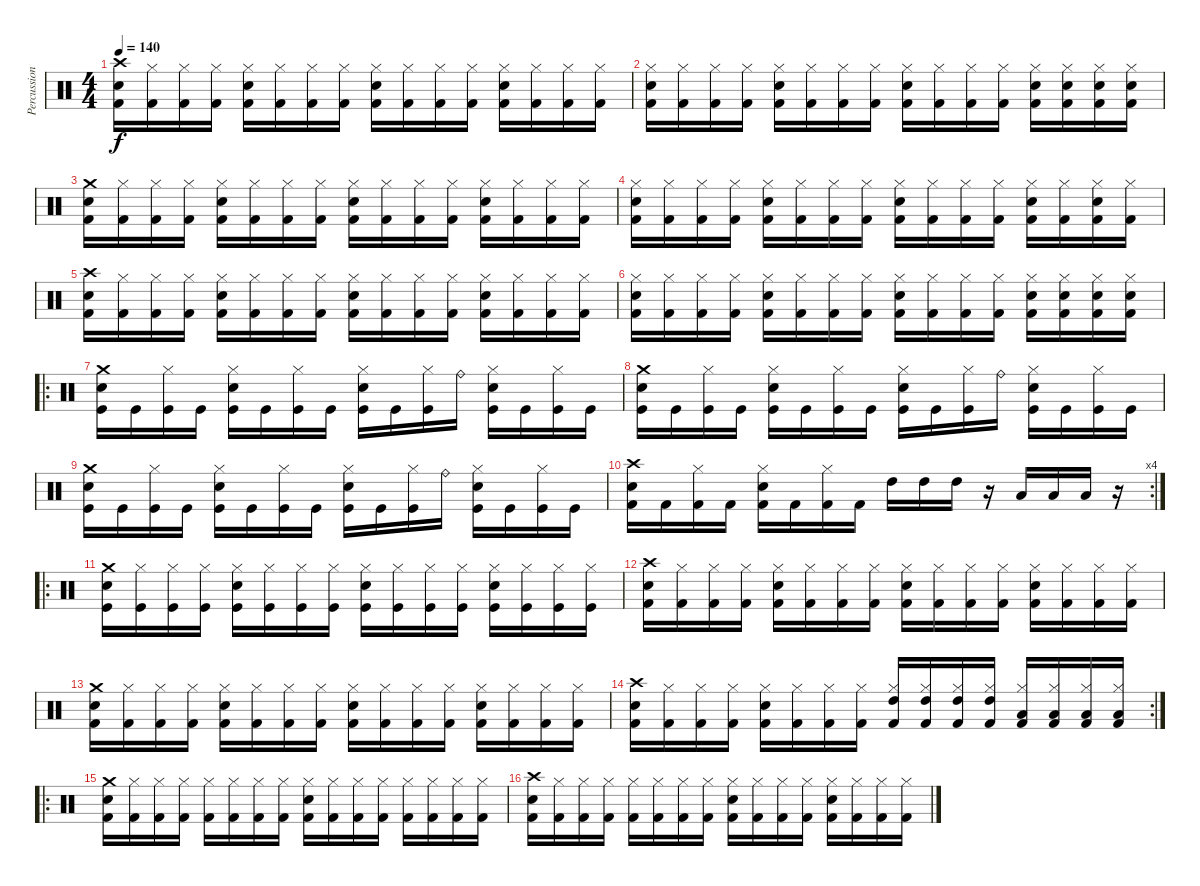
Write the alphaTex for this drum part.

\track ("Percussion" "Percussion") {instrument percussion}
\staff {score}
\articulation defaults
\ts (4 4)
\tempo 140
\clef neutral
\ks c
("Crash high (hit)" "Snare (hit) 2" "Kick (hit) 2").16{dy f} ("Hi-Hat (closed)" "Kick (hit) 2").16 ("Hi-Hat (closed)" "Kick (hit) 2").16 ("Hi-Hat (closed)" "Kick (hit) 2").16 ("Hi-Hat (closed)" "Snare (hit) 2" "Kick (hit) 2").16 ("Hi-Hat (closed)" "Kick (hit) 2").16 ("Hi-Hat (closed)" "Kick (hit) 2").16 ("Hi-Hat (closed)" "Kick (hit) 2").16 ("Hi-Hat (closed)" "Snare (hit) 2" "Kick (hit) 2").16 ("Hi-Hat (closed)" "Kick (hit) 2").16 ("Hi-Hat (closed)" "Kick (hit) 2").16 ("Hi-Hat (closed)" "Kick (hit) 2").16 ("Hi-Hat (closed)" "Snare (hit) 2" "Kick (hit) 2").16 ("Hi-Hat (closed)" "Kick (hit) 2").16 ("Hi-Hat (closed)" "Kick (hit) 2").16 ("Hi-Hat (closed)" "Kick (hit) 2").16 |
("Hi-Hat (closed)" "Snare (hit) 2" "Kick (hit) 2").16 ("Hi-Hat (closed)" "Kick (hit) 2").16 ("Hi-Hat (closed)" "Kick (hit) 2").16 ("Hi-Hat (closed)" "Kick (hit) 2").16 ("Hi-Hat (closed)" "Snare (hit) 2" "Kick (hit) 2").16 ("Hi-Hat (closed)" "Kick (hit) 2").16 ("Hi-Hat (closed)" "Kick (hit) 2").16 ("Hi-Hat (closed)" "Kick (hit) 2").16 ("Hi-Hat (closed)" "Snare (hit) 2" "Kick (hit) 2").16 ("Hi-Hat (closed)" "Kick (hit) 2").16 ("Hi-Hat (closed)" "Kick (hit) 2").16 ("Hi-Hat (closed)" "Kick (hit) 2").16 ("Hi-Hat (closed)" "Snare (hit) 2" "Kick (hit) 2").16 ("Hi-Hat (closed)" "Snare (hit) 2" "Kick (hit) 2").16 ("Hi-Hat (closed)" "Snare (hit) 2" "Kick (hit) 2").16 ("Hi-Hat (closed)" "Snare (hit) 2" "Kick (hit) 2").16 |
("Crash medium (hit)" "Snare (hit) 2" "Kick (hit) 2").16 ("Hi-Hat (closed)" "Kick (hit) 2").16 ("Hi-Hat (closed)" "Kick (hit) 2").16 ("Hi-Hat (closed)" "Kick (hit) 2").16 ("Hi-Hat (closed)" "Snare (hit) 2" "Kick (hit) 2").16 ("Hi-Hat (closed)" "Kick (hit) 2").16 ("Hi-Hat (closed)" "Kick (hit) 2").16 ("Hi-Hat (closed)" "Kick (hit) 2").16 ("Hi-Hat (closed)" "Snare (hit) 2" "Kick (hit) 2").16 ("Hi-Hat (closed)" "Kick (hit) 2").16 ("Hi-Hat (closed)" "Kick (hit) 2").16 ("Hi-Hat (closed)" "Kick (hit) 2").16 ("Hi-Hat (closed)" "Snare (hit) 2" "Kick (hit) 2").16 ("Hi-Hat (closed)" "Kick (hit) 2").16 ("Hi-Hat (closed)" "Kick (hit) 2").16 ("Hi-Hat (closed)" "Kick (hit) 2").16 |
("Hi-Hat (closed)" "Snare (hit) 2" "Kick (hit) 2").16 ("Hi-Hat (closed)" "Kick (hit) 2").16 ("Hi-Hat (closed)" "Kick (hit) 2").16 ("Hi-Hat (closed)" "Kick (hit) 2").16 ("Hi-Hat (closed)" "Snare (hit) 2" "Kick (hit) 2").16 ("Hi-Hat (closed)" "Kick (hit) 2").16 ("Hi-Hat (closed)" "Kick (hit) 2").16 ("Hi-Hat (closed)" "Kick (hit) 2").16 ("Hi-Hat (closed)" "Snare (hit) 2" "Kick (hit) 2").16 ("Hi-Hat (closed)" "Kick (hit) 2").16 ("Hi-Hat (closed)" "Kick (hit) 2").16 ("Hi-Hat (closed)" "Kick (hit) 2").16 ("Hi-Hat (closed)" "Snare (hit) 2" "Kick (hit) 2").16 ("Hi-Hat (closed)" "Kick (hit) 2").16 ("Hi-Hat (closed)" "Snare (hit) 2" "Kick (hit) 2").16 ("Hi-Hat (closed)" "Kick (hit) 2").16 |
("Crash high (hit)" "Snare (hit) 2" "Kick (hit) 2").16 ("Hi-Hat (closed)" "Kick (hit) 2").16 ("Hi-Hat (closed)" "Kick (hit) 2").16 ("Hi-Hat (closed)" "Kick (hit) 2").16 ("Hi-Hat (closed)" "Snare (hit) 2" "Kick (hit) 2").16 ("Hi-Hat (closed)" "Kick (hit) 2").16 ("Hi-Hat (closed)" "Kick (hit) 2").16 ("Hi-Hat (closed)" "Kick (hit) 2").16 ("Hi-Hat (closed)" "Snare (hit) 2" "Kick (hit) 2").16 ("Hi-Hat (closed)" "Kick (hit) 2").16 ("Hi-Hat (closed)" "Kick (hit) 2").16 ("Hi-Hat (closed)" "Kick (hit) 2").16 ("Hi-Hat (closed)" "Snare (hit) 2" "Kick (hit) 2").16 ("Hi-Hat (closed)" "Kick (hit) 2").16 ("Hi-Hat (closed)" "Kick (hit) 2").16 ("Hi-Hat (closed)" "Kick (hit) 2").16 |
("Hi-Hat (closed)" "Snare (hit) 2" "Kick (hit) 2").16 ("Hi-Hat (closed)" "Kick (hit) 2").16 ("Hi-Hat (closed)" "Kick (hit) 2").16 ("Hi-Hat (closed)" "Kick (hit) 2").16 ("Hi-Hat (closed)" "Snare (hit) 2" "Kick (hit) 2").16 ("Hi-Hat (closed)" "Kick (hit) 2").16 ("Hi-Hat (closed)" "Kick (hit) 2").16 ("Hi-Hat (closed)" "Kick (hit) 2").16 ("Hi-Hat (closed)" "Snare (hit) 2" "Kick (hit) 2").16 ("Hi-Hat (closed)" "Kick (hit) 2").16 ("Hi-Hat (closed)" "Kick (hit) 2").16 ("Hi-Hat (closed)" "Kick (hit) 2").16 ("Hi-Hat (closed)" "Snare (hit) 2" "Kick (hit) 2").16 ("Hi-Hat (closed)" "Snare (hit) 2" "Kick (hit) 2").16 ("Hi-Hat (closed)" "Snare (hit) 2" "Kick (hit) 2").16 ("Hi-Hat (closed)" "Snare (hit) 2" "Kick (hit) 2").16 |
\ro
("Crash medium (hit)" "Snare (hit) 2" "Kick (hit)").16 "Kick (hit)".16 ("Hi-Hat (closed)" "Kick (hit)").16 "Kick (hit)".16 ("Hi-Hat (closed)" "Snare (hit) 2" "Kick (hit)").16 "Kick (hit)".16 ("Hi-Hat (closed)" "Kick (hit)").16 "Kick (hit)".16 ("Hi-Hat (closed)" "Snare (hit) 2" "Kick (hit)").16 "Kick (hit)".16 ("Hi-Hat (closed)" "Kick (hit)").16 "Ride (bell)".16 ("Hi-Hat (closed)" "Snare (hit) 2" "Kick (hit)").16 "Kick (hit)".16 ("Hi-Hat (closed)" "Kick (hit)").16 "Kick (hit)".16 |
("Crash medium (hit)" "Snare (hit) 2" "Kick (hit)").16 "Kick (hit)".16 ("Hi-Hat (closed)" "Kick (hit)").16 "Kick (hit)".16 ("Hi-Hat (closed)" "Snare (hit) 2" "Kick (hit)").16 "Kick (hit)".16 ("Hi-Hat (closed)" "Kick (hit)").16 "Kick (hit)".16 ("Hi-Hat (closed)" "Snare (hit) 2" "Kick (hit)").16 "Kick (hit)".16 ("Hi-Hat (closed)" "Kick (hit)").16 "Ride (bell)".16 ("Hi-Hat (closed)" "Snare (hit) 2" "Kick (hit)").16 "Kick (hit)".16 ("Hi-Hat (closed)" "Kick (hit)").16 "Kick (hit)".16 |
("Crash medium (hit)" "Snare (hit) 2" "Kick (hit)").16 "Kick (hit)".16 ("Hi-Hat (closed)" "Kick (hit)").16 "Kick (hit)".16 ("Hi-Hat (closed)" "Snare (hit) 2" "Kick (hit)").16 "Kick (hit)".16 ("Hi-Hat (closed)" "Kick (hit)").16 "Kick (hit)".16 ("Hi-Hat (closed)" "Snare (hit) 2" "Kick (hit)").16 "Kick (hit)".16 ("Hi-Hat (closed)" "Kick (hit)").16 "Ride (bell)".16 ("Hi-Hat (closed)" "Snare (hit) 2" "Kick (hit)").16 "Kick (hit)".16 ("Hi-Hat (closed)" "Kick (hit)").16 "Kick (hit)".16 |
\rc 4
("Crash high (hit)" "Snare (hit) 2" "Kick (hit) 2").16 "Kick (hit) 2".16 ("Hi-Hat (closed)" "Kick (hit) 2").16 "Kick (hit) 2".16 ("Hi-Hat (closed)" "Snare (hit) 2" "Kick (hit) 2").16 "Kick (hit) 2".16 ("Hi-Hat (closed)" "Kick (hit) 2").16 "Kick (hit) 2".16 "High Tom (hit)".16 "High Tom (hit)".16 "High Tom (hit)".16 r.16 "Low Tom (hit)".16 "Low Tom (hit)".16 "Low Tom (hit)".16 r.16 |
\ro
("Crash medium (hit)" "Snare (hit) 2" "Kick (hit)").16 ("Hi-Hat (closed)" "Kick (hit)").16 ("Hi-Hat (closed)" "Kick (hit)").16 ("Hi-Hat (closed)" "Kick (hit)").16 ("Hi-Hat (closed)" "Snare (hit) 2" "Kick (hit)").16 ("Hi-Hat (closed)" "Kick (hit)").16 ("Hi-Hat (closed)" "Kick (hit)").16 ("Hi-Hat (closed)" "Kick (hit)").16 ("Hi-Hat (closed)" "Snare (hit) 2" "Kick (hit)").16 ("Hi-Hat (closed)" "Kick (hit)").16 ("Hi-Hat (closed)" "Kick (hit)").16 ("Hi-Hat (closed)" "Kick (hit)").16 ("Hi-Hat (closed)" "Snare (hit) 2" "Kick (hit)").16 ("Hi-Hat (closed)" "Kick (hit)").16 ("Hi-Hat (closed)" "Kick (hit)").16 ("Hi-Hat (closed)" "Kick (hit)").16 |
("Crash high (hit)" "Snare (hit) 2" "Kick (hit) 2").16 ("Hi-Hat (closed)" "Kick (hit) 2").16 ("Hi-Hat (closed)" "Kick (hit) 2").16 ("Hi-Hat (closed)" "Kick (hit) 2").16 ("Hi-Hat (closed)" "Snare (hit) 2" "Kick (hit) 2").16 ("Hi-Hat (closed)" "Kick (hit) 2").16 ("Hi-Hat (closed)" "Kick (hit) 2").16 ("Hi-Hat (closed)" "Kick (hit) 2").16 ("Hi-Hat (closed)" "Snare (hit) 2" "Kick (hit) 2").16 ("Hi-Hat (closed)" "Kick (hit) 2").16 ("Hi-Hat (closed)" "Kick (hit) 2").16 ("Hi-Hat (closed)" "Kick (hit) 2").16 ("Hi-Hat (closed)" "Snare (hit) 2" "Kick (hit) 2").16 ("Hi-Hat (closed)" "Kick (hit) 2").16 ("Hi-Hat (closed)" "Kick (hit) 2").16 ("Hi-Hat (closed)" "Kick (hit) 2").16 |
("Crash medium (hit)" "Snare (hit) 2" "Kick (hit) 2").16 ("Hi-Hat (closed)" "Kick (hit) 2").16 ("Hi-Hat (closed)" "Kick (hit) 2").16 ("Hi-Hat (closed)" "Kick (hit) 2").16 ("Hi-Hat (closed)" "Snare (hit) 2" "Kick (hit) 2").16 ("Hi-Hat (closed)" "Kick (hit) 2").16 ("Hi-Hat (closed)" "Kick (hit) 2").16 ("Hi-Hat (closed)" "Kick (hit) 2").16 ("Hi-Hat (closed)" "Snare (hit) 2" "Kick (hit) 2").16 ("Hi-Hat (closed)" "Kick (hit) 2").16 ("Hi-Hat (closed)" "Kick (hit) 2").16 ("Hi-Hat (closed)" "Kick (hit) 2").16 ("Hi-Hat (closed)" "Snare (hit) 2" "Kick (hit) 2").16 ("Hi-Hat (closed)" "Kick (hit) 2").16 ("Hi-Hat (closed)" "Kick (hit) 2").16 ("Hi-Hat (closed)" "Kick (hit) 2").16 |
\rc 2
("Crash high (hit)" "Snare (hit) 2" "Kick (hit) 2").16 ("Hi-Hat (closed)" "Kick (hit) 2").16 ("Hi-Hat (closed)" "Kick (hit) 2").16 ("Hi-Hat (closed)" "Kick (hit) 2").16 ("Hi-Hat (closed)" "Snare (hit) 2" "Kick (hit) 2").16 ("Hi-Hat (closed)" "Kick (hit) 2").16 ("Hi-Hat (closed)" "Kick (hit) 2").16 ("Hi-Hat (closed)" "Kick (hit) 2").16 ("Hi-Hat (closed)" "High Tom (hit)" "Kick (hit) 2").16 ("Hi-Hat (closed)" "High Tom (hit)" "Kick (hit) 2").16 ("Hi-Hat (closed)" "High Tom (hit)" "Kick (hit) 2").16 ("Hi-Hat (closed)" "High Tom (hit)" "Kick (hit) 2").16 ("Hi-Hat (closed)" "Low Tom (hit)" "Kick (hit) 2").16 ("Hi-Hat (closed)" "Low Tom (hit)" "Kick (hit) 2").16 ("Hi-Hat (closed)" "Low Tom (hit)" "Kick (hit) 2").16 ("Hi-Hat (closed)" "Low Tom (hit)" "Kick (hit) 2").16 |
\ro
("Crash medium (hit)" "Snare (hit) 2" "Kick (hit) 2").16 ("Hi-Hat (closed)" "Kick (hit) 2").16 ("Hi-Hat (closed)" "Kick (hit) 2").16 ("Hi-Hat (closed)" "Kick (hit) 2").16 ("Hi-Hat (closed)" "Kick (hit) 2").16 ("Hi-Hat (closed)" "Kick (hit) 2").16 ("Hi-Hat (closed)" "Kick (hit) 2").16 ("Hi-Hat (closed)" "Kick (hit) 2").16 ("Hi-Hat (closed)" "Snare (hit) 2" "Kick (hit) 2").16 ("Hi-Hat (closed)" "Kick (hit) 2").16 ("Hi-Hat (closed)" "Kick (hit) 2").16 ("Hi-Hat (closed)" "Kick (hit) 2").16 ("Hi-Hat (closed)" "Kick (hit) 2").16 ("Hi-Hat (closed)" "Kick (hit) 2").16 ("Hi-Hat (closed)" "Kick (hit) 2").16 ("Hi-Hat (closed)" "Kick (hit) 2").16 |
("Crash high (hit)" "Snare (hit) 2" "Kick (hit) 2").16 ("Hi-Hat (closed)" "Kick (hit) 2").16 ("Hi-Hat (closed)" "Kick (hit) 2").16 ("Hi-Hat (closed)" "Kick (hit) 2").16 ("Hi-Hat (closed)" "Kick (hit) 2").16 ("Hi-Hat (closed)" "Kick (hit) 2").16 ("Hi-Hat (closed)" "Kick (hit) 2").16 ("Hi-Hat (closed)" "Kick (hit) 2").16 ("Hi-Hat (closed)" "Snare (hit) 2" "Kick (hit) 2").16 ("Hi-Hat (closed)" "Kick (hit) 2").16 ("Hi-Hat (closed)" "Kick (hit) 2").16 ("Hi-Hat (closed)" "Kick (hit) 2").16 ("Hi-Hat (closed)" "Snare (hit) 2" "Kick (hit) 2").16 ("Hi-Hat (closed)" "Kick (hit) 2").16 ("Hi-Hat (closed)" "Kick (hit) 2").16 ("Hi-Hat (closed)" "Kick (hit) 2").16
